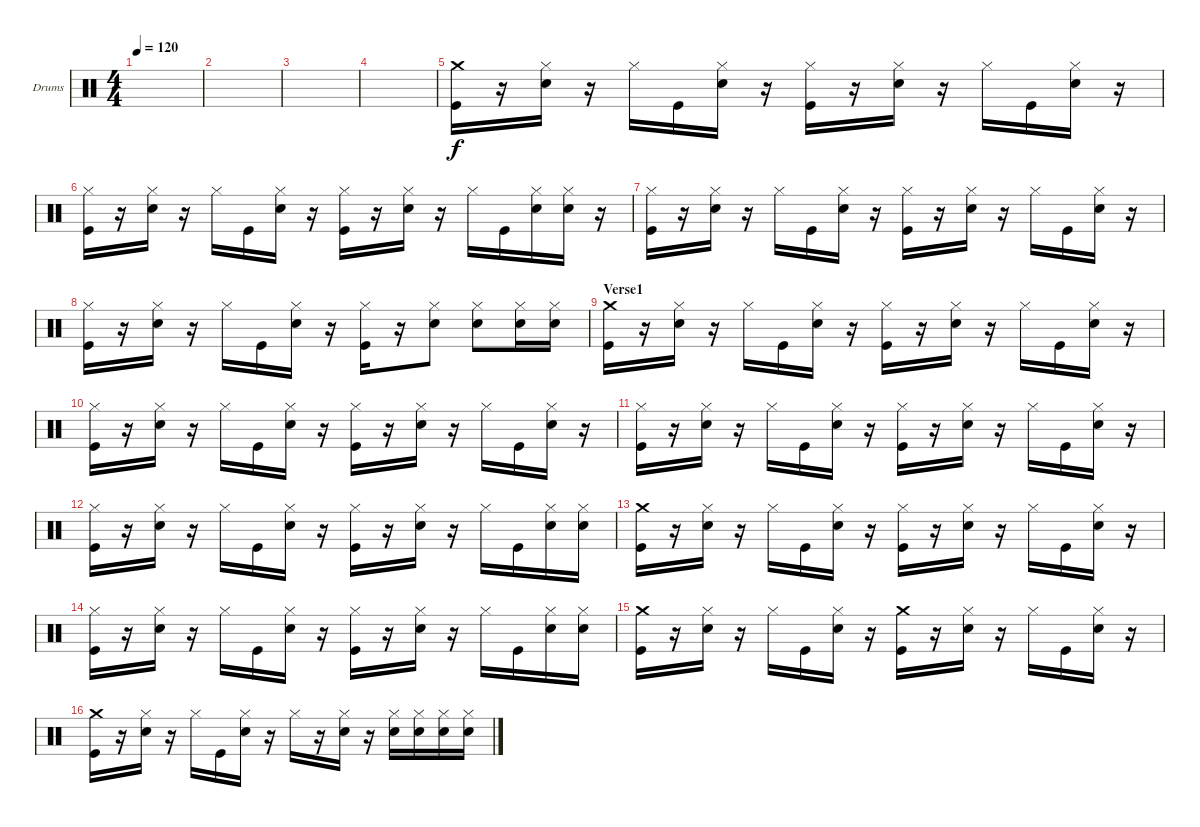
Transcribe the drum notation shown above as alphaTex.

\defaultSystemsLayout 4
\bracketExtendMode groupsimilarinstruments
\firstSystemTrackNameOrientation horizontal
\otherSystemsTrackNameOrientation horizontal
\track ("Jerinx" "Drums") {instrument percussion}
\staff {score}
\articulation defaults
\ts (4 4)
\tempo 120
\clef neutral
\scale
0.474178
\ks c
|
\scale
0.262911 |
\scale
0.262911 |
\scale
0.333333 |
\scale
0.333333 ("Kick (hit)" "Crash medium (hit)").16 r.16 ("Snare (hit) 2" "Hi-Hat (closed)").16 r.16 "Hi-Hat (closed)".16 "Kick (hit)".16 ("Snare (hit) 2" "Hi-Hat (closed)").16 r.16 ("Kick (hit)" "Hi-Hat (closed)").16 r.16 ("Snare (hit) 2" "Hi-Hat (closed)").16 r.16 "Hi-Hat (closed)".16 "Kick (hit)".16 ("Snare (hit) 2" "Hi-Hat (closed)").16 r.16 |
\scale
0.333333 ("Kick (hit)" "Hi-Hat (closed)").16 r.16 ("Snare (hit) 2" "Hi-Hat (closed)").16 r.16 "Hi-Hat (closed)".16 "Kick (hit)".16 ("Snare (hit) 2" "Hi-Hat (closed)").16 r.16 ("Kick (hit)" "Hi-Hat (closed)").16 r.16 ("Snare (hit) 2" "Hi-Hat (closed)").16 r.16 "Hi-Hat (closed)".16 "Kick (hit)".16 ("Snare (hit) 2" "Hi-Hat (closed)").16 ("Snare (hit) 2" "Hi-Hat (closed)").16 r.16 |
\scale
0.333333 ("Kick (hit)" "Hi-Hat (closed)").16 r.16 ("Snare (hit) 2" "Hi-Hat (closed)").16 r.16 "Hi-Hat (closed)".16 "Kick (hit)".16 ("Snare (hit) 2" "Hi-Hat (closed)").16 r.16 ("Kick (hit)" "Hi-Hat (closed)").16 r.16 ("Snare (hit) 2" "Hi-Hat (closed)").16 r.16 "Hi-Hat (closed)".16 "Kick (hit)".16 ("Snare (hit) 2" "Hi-Hat (closed)").16 r.16 |
\scale
0.333333 ("Kick (hit)" "Hi-Hat (closed)").16 r.16 ("Snare (hit) 2" "Hi-Hat (closed)").16 r.16 "Hi-Hat (closed)".16 "Kick (hit)".16 ("Snare (hit) 2" "Hi-Hat (closed)").16 r.16 ("Kick (hit)" "Hi-Hat (closed)").16 r.16 ("Snare (hit) 2" "Hi-Hat (closed)").8 ("Snare (hit) 2" "Hi-Hat (closed)").8 ("Snare (hit) 2" "Hi-Hat (closed)").16 ("Snare (hit) 2" "Hi-Hat (closed)").16 |
\section ("" "Verse1")
\scale
0.333333 ("Kick (hit)" "Crash medium (hit)").16 r.16 ("Snare (hit) 2" "Hi-Hat (closed)").16 r.16 "Hi-Hat (closed)".16 "Kick (hit)".16 ("Snare (hit) 2" "Hi-Hat (closed)").16 r.16 ("Kick (hit)" "Hi-Hat (closed)").16 r.16 ("Snare (hit) 2" "Hi-Hat (closed)").16 r.16 "Hi-Hat (closed)".16 "Kick (hit)".16 ("Snare (hit) 2" "Hi-Hat (closed)").16 r.16 |
("Kick (hit)" "Hi-Hat (closed)").16 r.16 ("Snare (hit) 2" "Hi-Hat (closed)").16 r.16 "Hi-Hat (closed)".16 "Kick (hit)".16 ("Snare (hit) 2" "Hi-Hat (closed)").16 r.16 ("Kick (hit)" "Hi-Hat (closed)").16 r.16 ("Snare (hit) 2" "Hi-Hat (closed)").16 r.16 "Hi-Hat (closed)".16 "Kick (hit)".16 ("Snare (hit) 2" "Hi-Hat (closed)").16 r.16 |
("Kick (hit)" "Hi-Hat (closed)").16 r.16 ("Snare (hit) 2" "Hi-Hat (closed)").16 r.16 "Hi-Hat (closed)".16 "Kick (hit)".16 ("Snare (hit) 2" "Hi-Hat (closed)").16 r.16 ("Kick (hit)" "Hi-Hat (closed)").16 r.16 ("Snare (hit) 2" "Hi-Hat (closed)").16 r.16 "Hi-Hat (closed)".16 "Kick (hit)".16 ("Snare (hit) 2" "Hi-Hat (closed)").16 r.16 |
("Kick (hit)" "Hi-Hat (closed)").16 r.16 ("Snare (hit) 2" "Hi-Hat (closed)").16 r.16 "Hi-Hat (closed)".16 "Kick (hit)".16 ("Snare (hit) 2" "Hi-Hat (closed)").16 r.16 ("Kick (hit)" "Hi-Hat (closed)").16 r.16 ("Snare (hit) 2" "Hi-Hat (closed)").16 r.16 "Hi-Hat (closed)".16 "Kick (hit)".16 ("Snare (hit) 2" "Hi-Hat (closed)").16 ("Snare (hit) 2" "Hi-Hat (closed)").16 |
("Kick (hit)" "Crash medium (hit)").16 r.16 ("Snare (hit) 2" "Hi-Hat (closed)").16 r.16 "Hi-Hat (closed)".16 "Kick (hit)".16 ("Snare (hit) 2" "Hi-Hat (closed)").16 r.16 ("Kick (hit)" "Hi-Hat (closed)").16 r.16 ("Snare (hit) 2" "Hi-Hat (closed)").16 r.16 "Hi-Hat (closed)".16 "Kick (hit)".16 ("Snare (hit) 2" "Hi-Hat (closed)").16 r.16 |
("Kick (hit)" "Hi-Hat (closed)").16 r.16 ("Snare (hit) 2" "Hi-Hat (closed)").16 r.16 "Hi-Hat (closed)".16 "Kick (hit)".16 ("Snare (hit) 2" "Hi-Hat (closed)").16 r.16 ("Kick (hit)" "Hi-Hat (closed)").16 r.16 ("Snare (hit) 2" "Hi-Hat (closed)").16 r.16 "Hi-Hat (closed)".16 "Kick (hit)".16 ("Snare (hit) 2" "Hi-Hat (closed)").16 ("Snare (hit) 2" "Hi-Hat (closed)").16 |
("Kick (hit)" "Crash medium (hit)").16 r.16 ("Snare (hit) 2" "Hi-Hat (closed)").16 r.16 "Hi-Hat (closed)".16 "Kick (hit)".16 ("Snare (hit) 2" "Hi-Hat (closed)").16 r.16 ("Kick (hit)" "Crash medium (hit)").16 r.16 ("Snare (hit) 2" "Hi-Hat (closed)").16 r.16 "Hi-Hat (closed)".16 "Kick (hit)".16 ("Snare (hit) 2" "Hi-Hat (closed)").16 r.16 |
("Kick (hit)" "Crash medium (hit)").16 r.16 ("Snare (hit) 2" "Hi-Hat (closed)").16 r.16 "Hi-Hat (closed)".16 "Kick (hit)".16 ("Snare (hit) 2" "Hi-Hat (closed)").16 r.16 "Hi-Hat (closed)".16 r.16 ("Snare (hit) 2" "Hi-Hat (closed)").16 r.16 ("Snare (hit) 2" "Hi-Hat (closed)").16 ("Snare (hit) 2" "Hi-Hat (closed)").16 ("Snare (hit) 2" "Hi-Hat (closed)").16 ("Snare (hit) 2" "Hi-Hat (closed)").16
